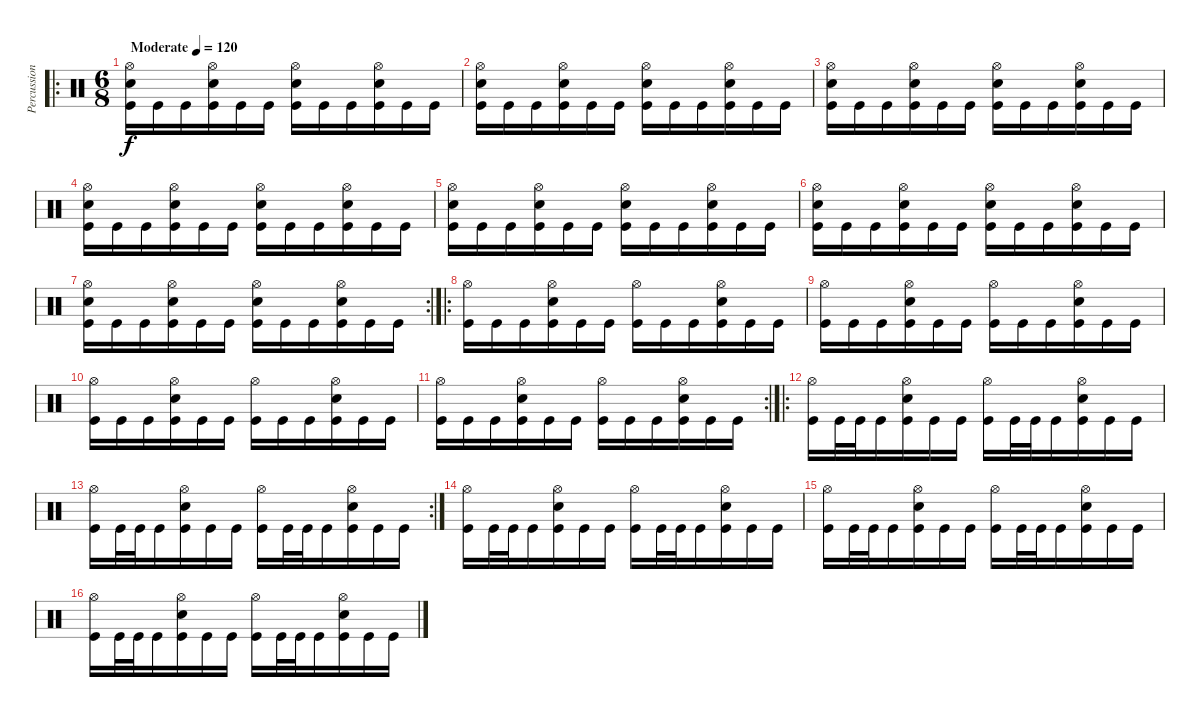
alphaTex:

\track ("Percussion" "Percussion") {instrument percussion}
\staff {score}
\articulation defaults
\ro
\ts (6 8)
\tempo (120 "Moderate")
\clef neutral
\ks c
("Hi-Hat (open)" "Snare (hit) 2" "Kick (hit)").16{dy f} "Kick (hit)".16 "Kick (hit)".16 ("Hi-Hat (open)" "Snare (hit) 2" "Kick (hit)").16 "Kick (hit)".16 "Kick (hit)".16 ("Hi-Hat (open)" "Snare (hit) 2" "Kick (hit)").16 "Kick (hit)".16 "Kick (hit)".16 ("Hi-Hat (open)" "Snare (hit) 2" "Kick (hit)").16 "Kick (hit)".16 "Kick (hit)".16 |
("Hi-Hat (open)" "Snare (hit) 2" "Kick (hit)").16 "Kick (hit)".16 "Kick (hit)".16 ("Hi-Hat (open)" "Snare (hit) 2" "Kick (hit)").16 "Kick (hit)".16 "Kick (hit)".16 ("Hi-Hat (open)" "Snare (hit) 2" "Kick (hit)").16 "Kick (hit)".16 "Kick (hit)".16 ("Hi-Hat (open)" "Snare (hit) 2" "Kick (hit)").16 "Kick (hit)".16 "Kick (hit)".16 |
("Hi-Hat (open)" "Snare (hit) 2" "Kick (hit)").16 "Kick (hit)".16 "Kick (hit)".16 ("Hi-Hat (open)" "Snare (hit) 2" "Kick (hit)").16 "Kick (hit)".16 "Kick (hit)".16 ("Hi-Hat (open)" "Snare (hit) 2" "Kick (hit)").16 "Kick (hit)".16 "Kick (hit)".16 ("Hi-Hat (open)" "Snare (hit) 2" "Kick (hit)").16 "Kick (hit)".16 "Kick (hit)".16 |
("Hi-Hat (open)" "Snare (hit) 2" "Kick (hit)").16 "Kick (hit)".16 "Kick (hit)".16 ("Hi-Hat (open)" "Snare (hit) 2" "Kick (hit)").16 "Kick (hit)".16 "Kick (hit)".16 ("Hi-Hat (open)" "Snare (hit) 2" "Kick (hit)").16 "Kick (hit)".16 "Kick (hit)".16 ("Hi-Hat (open)" "Snare (hit) 2" "Kick (hit)").16 "Kick (hit)".16 "Kick (hit)".16 |
("Hi-Hat (open)" "Snare (hit) 2" "Kick (hit)").16 "Kick (hit)".16 "Kick (hit)".16 ("Hi-Hat (open)" "Snare (hit) 2" "Kick (hit)").16 "Kick (hit)".16 "Kick (hit)".16 ("Hi-Hat (open)" "Snare (hit) 2" "Kick (hit)").16 "Kick (hit)".16 "Kick (hit)".16 ("Hi-Hat (open)" "Snare (hit) 2" "Kick (hit)").16 "Kick (hit)".16 "Kick (hit)".16 |
("Hi-Hat (open)" "Snare (hit) 2" "Kick (hit)").16 "Kick (hit)".16 "Kick (hit)".16 ("Hi-Hat (open)" "Snare (hit) 2" "Kick (hit)").16 "Kick (hit)".16 "Kick (hit)".16 ("Hi-Hat (open)" "Snare (hit) 2" "Kick (hit)").16 "Kick (hit)".16 "Kick (hit)".16 ("Hi-Hat (open)" "Snare (hit) 2" "Kick (hit)").16 "Kick (hit)".16 "Kick (hit)".16 |
\rc 2
("Hi-Hat (open)" "Snare (hit) 2" "Kick (hit)").16 "Kick (hit)".16 "Kick (hit)".16 ("Hi-Hat (open)" "Snare (hit) 2" "Kick (hit)").16 "Kick (hit)".16 "Kick (hit)".16 ("Hi-Hat (open)" "Snare (hit) 2" "Kick (hit)").16 "Kick (hit)".16 "Kick (hit)".16 ("Hi-Hat (open)" "Snare (hit) 2" "Kick (hit)").16 "Kick (hit)".16 "Kick (hit)".16 |
\ro
("Hi-Hat (open)" "Kick (hit)").16 "Kick (hit)".16 "Kick (hit)".16 ("Hi-Hat (open)" "Snare (hit) 2" "Kick (hit)").16 "Kick (hit)".16 "Kick (hit)".16 ("Hi-Hat (open)" "Kick (hit)").16 "Kick (hit)".16 "Kick (hit)".16 ("Hi-Hat (open)" "Snare (hit) 2" "Kick (hit)").16 "Kick (hit)".16 "Kick (hit)".16 |
("Hi-Hat (open)" "Kick (hit)").16 "Kick (hit)".16 "Kick (hit)".16 ("Hi-Hat (open)" "Snare (hit) 2" "Kick (hit)").16 "Kick (hit)".16 "Kick (hit)".16 ("Hi-Hat (open)" "Kick (hit)").16 "Kick (hit)".16 "Kick (hit)".16 ("Hi-Hat (open)" "Snare (hit) 2" "Kick (hit)").16 "Kick (hit)".16 "Kick (hit)".16 |
("Hi-Hat (open)" "Kick (hit)").16 "Kick (hit)".16 "Kick (hit)".16 ("Hi-Hat (open)" "Snare (hit) 2" "Kick (hit)").16 "Kick (hit)".16 "Kick (hit)".16 ("Hi-Hat (open)" "Kick (hit)").16 "Kick (hit)".16 "Kick (hit)".16 ("Hi-Hat (open)" "Snare (hit) 2" "Kick (hit)").16 "Kick (hit)".16 "Kick (hit)".16 |
\rc 2
("Hi-Hat (open)" "Kick (hit)").16 "Kick (hit)".16 "Kick (hit)".16 ("Hi-Hat (open)" "Snare (hit) 2" "Kick (hit)").16 "Kick (hit)".16 "Kick (hit)".16 ("Hi-Hat (open)" "Kick (hit)").16 "Kick (hit)".16 "Kick (hit)".16 ("Hi-Hat (open)" "Snare (hit) 2" "Kick (hit)").16 "Kick (hit)".16 "Kick (hit)".16 |
\ro
("Hi-Hat (open)" "Kick (hit)").16 "Kick (hit)".32 "Kick (hit)".32 "Kick (hit)".16 ("Hi-Hat (open)" "Snare (hit) 2" "Kick (hit)").16 "Kick (hit)".16 "Kick (hit)".16 ("Hi-Hat (open)" "Kick (hit)").16 "Kick (hit)".32 "Kick (hit)".32 "Kick (hit)".16 ("Hi-Hat (open)" "Snare (hit) 2" "Kick (hit)").16 "Kick (hit)".16 "Kick (hit)".16 |
\rc 2
("Hi-Hat (open)" "Kick (hit)").16 "Kick (hit)".32 "Kick (hit)".32 "Kick (hit)".16 ("Hi-Hat (open)" "Snare (hit) 2" "Kick (hit)").16 "Kick (hit)".16 "Kick (hit)".16 ("Hi-Hat (open)" "Kick (hit)").16 "Kick (hit)".32 "Kick (hit)".32 "Kick (hit)".16 ("Hi-Hat (open)" "Snare (hit) 2" "Kick (hit)").16 "Kick (hit)".16 "Kick (hit)".16 |
("Hi-Hat (open)" "Kick (hit)").16 "Kick (hit)".32 "Kick (hit)".32 "Kick (hit)".16 ("Hi-Hat (open)" "Snare (hit) 2" "Kick (hit)").16 "Kick (hit)".16 "Kick (hit)".16 ("Hi-Hat (open)" "Kick (hit)").16 "Kick (hit)".32 "Kick (hit)".32 "Kick (hit)".16 ("Hi-Hat (open)" "Snare (hit) 2" "Kick (hit)").16 "Kick (hit)".16 "Kick (hit)".16 |
("Hi-Hat (open)" "Kick (hit)").16 "Kick (hit)".32 "Kick (hit)".32 "Kick (hit)".16 ("Hi-Hat (open)" "Snare (hit) 2" "Kick (hit)").16 "Kick (hit)".16 "Kick (hit)".16 ("Hi-Hat (open)" "Kick (hit)").16 "Kick (hit)".32 "Kick (hit)".32 "Kick (hit)".16 ("Hi-Hat (open)" "Snare (hit) 2" "Kick (hit)").16 "Kick (hit)".16 "Kick (hit)".16 |
("Hi-Hat (open)" "Kick (hit)").16 "Kick (hit)".32 "Kick (hit)".32 "Kick (hit)".16 ("Hi-Hat (open)" "Snare (hit) 2" "Kick (hit)").16 "Kick (hit)".16 "Kick (hit)".16 ("Hi-Hat (open)" "Kick (hit)").16 "Kick (hit)".32 "Kick (hit)".32 "Kick (hit)".16 ("Hi-Hat (open)" "Snare (hit) 2" "Kick (hit)").16 "Kick (hit)".16 "Kick (hit)".16
